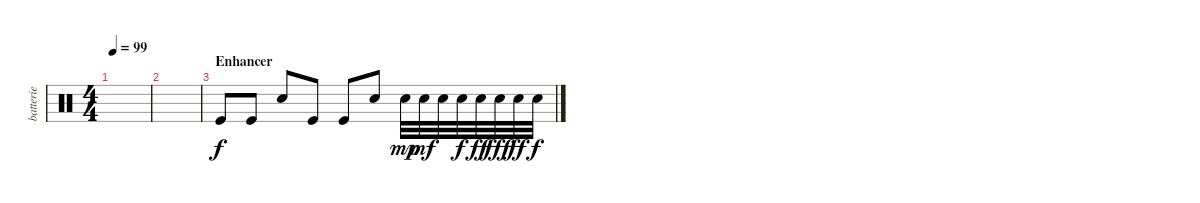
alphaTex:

\track ("batterie" "batterie") {instrument percussion}
\staff {score}
\articulation defaults
\ts (4 4)
\tempo 99
\clef neutral
\ks c
|
|
\section ("" "Enhancer")
"Kick (hit)".8{volume 16} "Kick (hit)".8 "Electric Snare (hit)".8 "Kick (hit)".8 "Kick (hit)".8 "Electric Snare (hit)".8 "Electric Snare (hit)".32{dy mp} "Electric Snare (hit)".32{dy mf} "Electric Snare (hit)".32 "Electric Snare (hit)".32{dy f} "Electric Snare (hit)".32{dy ff} "Electric Snare (hit)".32{dy fff} "Electric Snare (hit)".32{dy ff} "Electric Snare (hit)".32{dy f}
